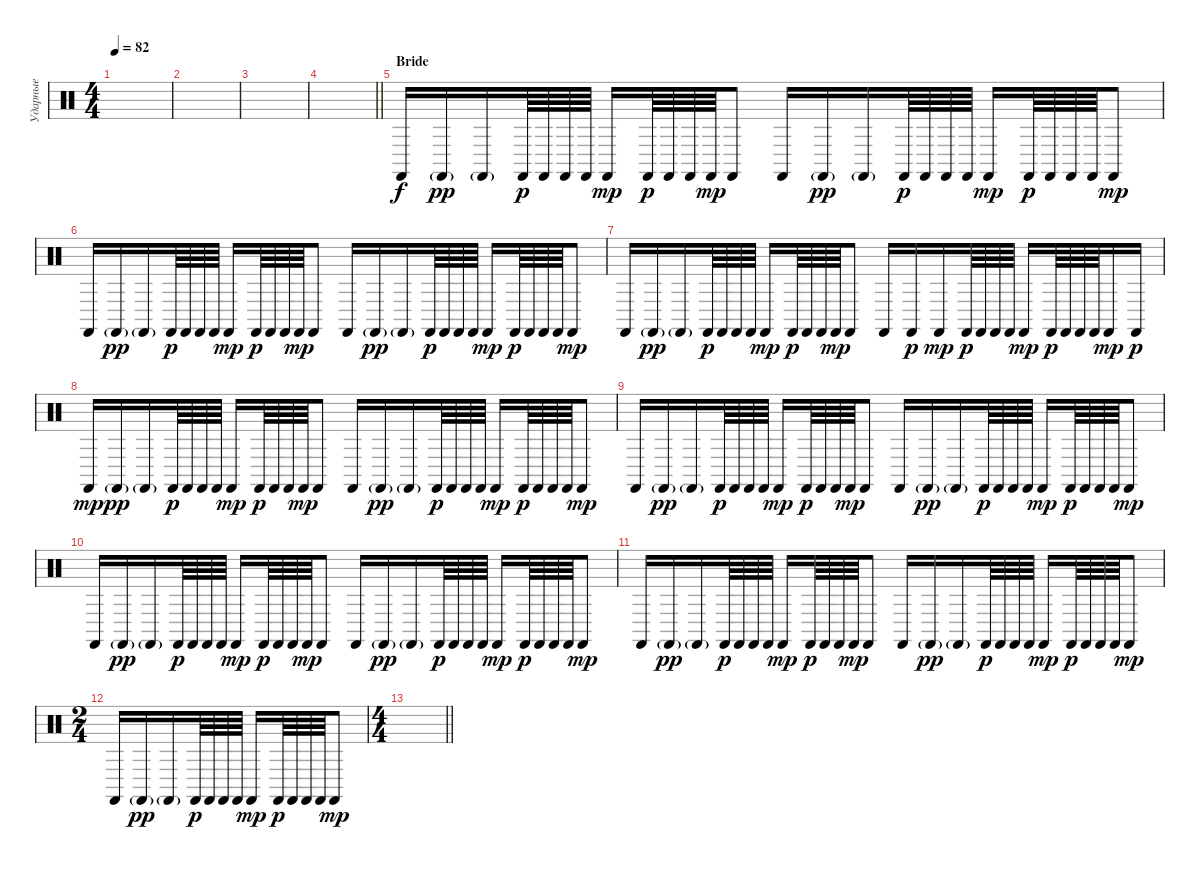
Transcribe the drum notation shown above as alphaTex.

\track ("Ударные" "Ударные") {instrument percussion}
\staff {score}
\articulation defaults
\ts (4 4)
\tempo 82
\clef neutral
\ks c
|
|
|
\barLineRight lightlight
|
\section ("" "Bride")
"Castanets (hit)".16 "Castanets (hit)"{g}.16{dy pp} "Castanets (hit)"{g}.16 "Castanets (hit)".64{dy p} "Castanets (hit)".64 "Castanets (hit)".64 "Castanets (hit)".64 "Castanets (hit)".16{dy mp} "Castanets (hit)".64{dy p} "Castanets (hit)".64 "Castanets (hit)".64 "Castanets (hit)".64{dy mp} "Castanets (hit)".8 "Castanets (hit)".16 "Castanets (hit)"{g}.16{dy pp} "Castanets (hit)"{g}.16 "Castanets (hit)".64{dy p} "Castanets (hit)".64 "Castanets (hit)".64 "Castanets (hit)".64 "Castanets (hit)".16{dy mp} "Castanets (hit)".64{dy p} "Castanets (hit)".64 "Castanets (hit)".64 "Castanets (hit)".64 "Castanets (hit)".8{dy mp} |
"Castanets (hit)".16 "Castanets (hit)"{g}.16{dy pp} "Castanets (hit)"{g}.16 "Castanets (hit)".64{dy p} "Castanets (hit)".64 "Castanets (hit)".64 "Castanets (hit)".64 "Castanets (hit)".16{dy mp} "Castanets (hit)".64{dy p} "Castanets (hit)".64 "Castanets (hit)".64 "Castanets (hit)".64{dy mp} "Castanets (hit)".8 "Castanets (hit)".16 "Castanets (hit)"{g}.16{dy pp} "Castanets (hit)"{g}.16 "Castanets (hit)".64{dy p} "Castanets (hit)".64 "Castanets (hit)".64 "Castanets (hit)".64 "Castanets (hit)".16{dy mp} "Castanets (hit)".64{dy p} "Castanets (hit)".64 "Castanets (hit)".64 "Castanets (hit)".64 "Castanets (hit)".8{dy mp} |
"Castanets (hit)".16 "Castanets (hit)"{g}.16{dy pp} "Castanets (hit)"{g}.16 "Castanets (hit)".64{dy p} "Castanets (hit)".64 "Castanets (hit)".64 "Castanets (hit)".64 "Castanets (hit)".16{dy mp} "Castanets (hit)".64{dy p} "Castanets (hit)".64 "Castanets (hit)".64 "Castanets (hit)".64{dy mp} "Castanets (hit)".8 "Castanets (hit)".16 "Castanets (hit)".16{dy p} "Castanets (hit)".16{dy mp} "Castanets (hit)".64{dy p} "Castanets (hit)".64 "Castanets (hit)".64 "Castanets (hit)".64 "Castanets (hit)".16{dy mp} "Castanets (hit)".64{dy p} "Castanets (hit)".64 "Castanets (hit)".64 "Castanets (hit)".64 "Castanets (hit)".16{dy mp} "Castanets (hit)".16{dy p} |
"Castanets (hit)".16{dy mp} "Castanets (hit)"{g}.16{dy pp} "Castanets (hit)"{g}.16 "Castanets (hit)".64{dy p} "Castanets (hit)".64 "Castanets (hit)".64 "Castanets (hit)".64 "Castanets (hit)".16{dy mp} "Castanets (hit)".64{dy p} "Castanets (hit)".64 "Castanets (hit)".64 "Castanets (hit)".64{dy mp} "Castanets (hit)".8 "Castanets (hit)".16 "Castanets (hit)"{g}.16{dy pp} "Castanets (hit)"{g}.16 "Castanets (hit)".64{dy p} "Castanets (hit)".64 "Castanets (hit)".64 "Castanets (hit)".64 "Castanets (hit)".16{dy mp} "Castanets (hit)".64{dy p} "Castanets (hit)".64 "Castanets (hit)".64 "Castanets (hit)".64 "Castanets (hit)".8{dy mp} |
"Castanets (hit)".16 "Castanets (hit)"{g}.16{dy pp} "Castanets (hit)"{g}.16 "Castanets (hit)".64{dy p} "Castanets (hit)".64 "Castanets (hit)".64 "Castanets (hit)".64 "Castanets (hit)".16{dy mp} "Castanets (hit)".64{dy p} "Castanets (hit)".64 "Castanets (hit)".64 "Castanets (hit)".64{dy mp} "Castanets (hit)".8 "Castanets (hit)".16 "Castanets (hit)"{g}.16{dy pp} "Castanets (hit)"{g}.16 "Castanets (hit)".64{dy p} "Castanets (hit)".64 "Castanets (hit)".64 "Castanets (hit)".64 "Castanets (hit)".16{dy mp} "Castanets (hit)".64{dy p} "Castanets (hit)".64 "Castanets (hit)".64 "Castanets (hit)".64 "Castanets (hit)".8{dy mp} |
"Castanets (hit)".16 "Castanets (hit)"{g}.16{dy pp} "Castanets (hit)"{g}.16 "Castanets (hit)".64{dy p} "Castanets (hit)".64 "Castanets (hit)".64 "Castanets (hit)".64 "Castanets (hit)".16{dy mp} "Castanets (hit)".64{dy p} "Castanets (hit)".64 "Castanets (hit)".64 "Castanets (hit)".64{dy mp} "Castanets (hit)".8 "Castanets (hit)".16 "Castanets (hit)"{g}.16{dy pp} "Castanets (hit)"{g}.16 "Castanets (hit)".64{dy p} "Castanets (hit)".64 "Castanets (hit)".64 "Castanets (hit)".64 "Castanets (hit)".16{dy mp} "Castanets (hit)".64{dy p} "Castanets (hit)".64 "Castanets (hit)".64 "Castanets (hit)".64 "Castanets (hit)".8{dy mp} |
"Castanets (hit)".16 "Castanets (hit)"{g}.16{dy pp} "Castanets (hit)"{g}.16 "Castanets (hit)".64{dy p} "Castanets (hit)".64 "Castanets (hit)".64 "Castanets (hit)".64 "Castanets (hit)".16{dy mp} "Castanets (hit)".64{dy p} "Castanets (hit)".64 "Castanets (hit)".64 "Castanets (hit)".64{dy mp} "Castanets (hit)".8 "Castanets (hit)".16 "Castanets (hit)"{g}.16{dy pp} "Castanets (hit)"{g}.16 "Castanets (hit)".64{dy p} "Castanets (hit)".64 "Castanets (hit)".64 "Castanets (hit)".64 "Castanets (hit)".16{dy mp} "Castanets (hit)".64{dy p} "Castanets (hit)".64 "Castanets (hit)".64 "Castanets (hit)".64 "Castanets (hit)".8{dy mp} |
\ts (2 4)
"Castanets (hit)".16 "Castanets (hit)"{g}.16{dy pp} "Castanets (hit)"{g}.16 "Castanets (hit)".64{dy p} "Castanets (hit)".64 "Castanets (hit)".64 "Castanets (hit)".64 "Castanets (hit)".16{dy mp} "Castanets (hit)".64{dy p} "Castanets (hit)".64 "Castanets (hit)".64 "Castanets (hit)".64 "Castanets (hit)".8{dy mp} |
\ts (4 4)
\barLineRight lightlight
